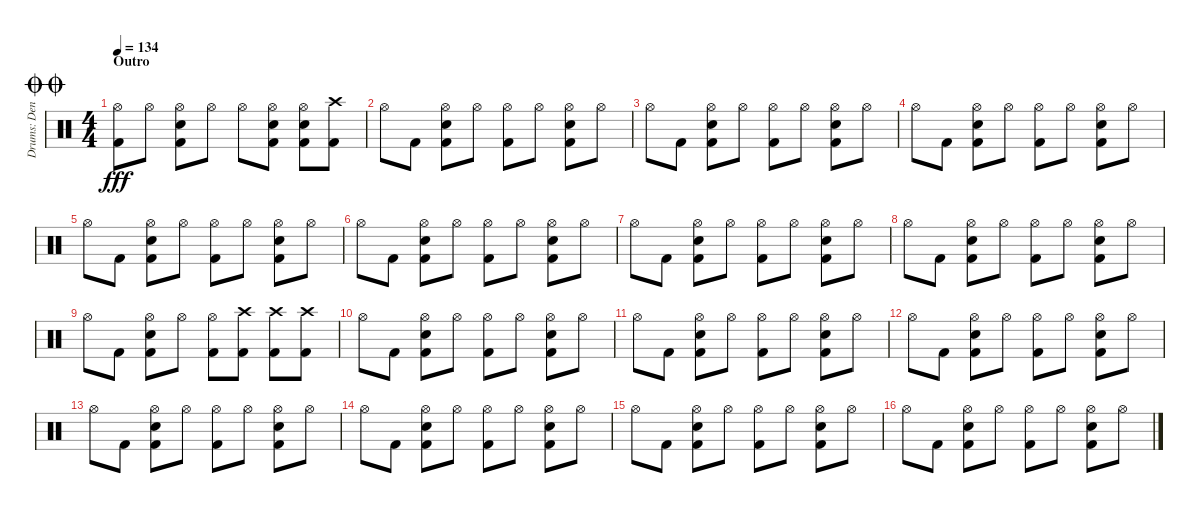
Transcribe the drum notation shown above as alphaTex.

\track ("Drums: Denny" "Drums: Den") {instrument percussion}
\staff {score}
\articulation defaults
\ts (4 4)
\section ("" "Outro")
\jump doublecoda
\tempo 134
\clef neutral
\ks c
("Hi-Hat (open)" "Kick (hit) 2").8{dy fff} "Hi-Hat (open)".8 ("Hi-Hat (open)" "Snare (hit) 2" "Kick (hit) 2").8 "Hi-Hat (open)".8 "Hi-Hat (open)".8 ("Hi-Hat (open)" "Snare (hit) 2" "Kick (hit) 2").8 ("Hi-Hat (open)" "Snare (hit) 2" "Kick (hit) 2").8 ("Crash high (hit)" "Kick (hit) 2").8 |
"Hi-Hat (open)".8 "Kick (hit) 2".8 ("Hi-Hat (open)" "Snare (hit) 2" "Kick (hit) 2").8 "Hi-Hat (open)".8 ("Hi-Hat (open)" "Kick (hit) 2").8 "Hi-Hat (open)".8 ("Hi-Hat (open)" "Snare (hit) 2" "Kick (hit) 2").8 "Hi-Hat (open)".8 |
"Hi-Hat (open)".8 "Kick (hit) 2".8 ("Hi-Hat (open)" "Snare (hit) 2" "Kick (hit) 2").8 "Hi-Hat (open)".8 ("Hi-Hat (open)" "Kick (hit) 2").8 "Hi-Hat (open)".8 ("Hi-Hat (open)" "Snare (hit) 2" "Kick (hit) 2").8 "Hi-Hat (open)".8 |
"Hi-Hat (open)".8 "Kick (hit) 2".8 ("Hi-Hat (open)" "Snare (hit) 2" "Kick (hit) 2").8 "Hi-Hat (open)".8 ("Hi-Hat (open)" "Kick (hit) 2").8 "Hi-Hat (open)".8 ("Hi-Hat (open)" "Snare (hit) 2" "Kick (hit) 2").8 "Hi-Hat (open)".8 |
"Hi-Hat (open)".8 "Kick (hit) 2".8 ("Hi-Hat (open)" "Snare (hit) 2" "Kick (hit) 2").8 "Hi-Hat (open)".8 ("Hi-Hat (open)" "Kick (hit) 2").8 "Hi-Hat (open)".8 ("Hi-Hat (open)" "Snare (hit) 2" "Kick (hit) 2").8 "Hi-Hat (open)".8 |
"Hi-Hat (open)".8 "Kick (hit) 2".8 ("Hi-Hat (open)" "Snare (hit) 2" "Kick (hit) 2").8 "Hi-Hat (open)".8 ("Hi-Hat (open)" "Kick (hit) 2").8 "Hi-Hat (open)".8 ("Hi-Hat (open)" "Snare (hit) 2" "Kick (hit) 2").8 "Hi-Hat (open)".8 |
"Hi-Hat (open)".8 "Kick (hit) 2".8 ("Hi-Hat (open)" "Snare (hit) 2" "Kick (hit) 2").8 "Hi-Hat (open)".8 ("Hi-Hat (open)" "Kick (hit) 2").8 "Hi-Hat (open)".8 ("Hi-Hat (open)" "Snare (hit) 2" "Kick (hit) 2").8 "Hi-Hat (open)".8 |
"Hi-Hat (open)".8 "Kick (hit) 2".8 ("Hi-Hat (open)" "Snare (hit) 2" "Kick (hit) 2").8 "Hi-Hat (open)".8 ("Hi-Hat (open)" "Kick (hit) 2").8 "Hi-Hat (open)".8 ("Hi-Hat (open)" "Snare (hit) 2" "Kick (hit) 2").8 "Hi-Hat (open)".8 |
"Hi-Hat (open)".8 "Kick (hit) 2".8 ("Hi-Hat (open)" "Snare (hit) 2" "Kick (hit) 2").8 "Hi-Hat (open)".8 ("Hi-Hat (open)" "Kick (hit) 2").8 ("Crash high (hit)" "Kick (hit) 2").8 ("Crash high (hit)" "Kick (hit) 2").8 ("Crash high (hit)" "Kick (hit) 2").8 |
"Hi-Hat (open)".8 "Kick (hit) 2".8 ("Hi-Hat (open)" "Snare (hit) 2" "Kick (hit) 2").8 "Hi-Hat (open)".8 ("Hi-Hat (open)" "Kick (hit) 2").8 "Hi-Hat (open)".8 ("Hi-Hat (open)" "Snare (hit) 2" "Kick (hit) 2").8 "Hi-Hat (open)".8 |
"Hi-Hat (open)".8 "Kick (hit) 2".8 ("Hi-Hat (open)" "Snare (hit) 2" "Kick (hit) 2").8 "Hi-Hat (open)".8 ("Hi-Hat (open)" "Kick (hit) 2").8 "Hi-Hat (open)".8 ("Hi-Hat (open)" "Snare (hit) 2" "Kick (hit) 2").8 "Hi-Hat (open)".8 |
"Hi-Hat (open)".8 "Kick (hit) 2".8 ("Hi-Hat (open)" "Snare (hit) 2" "Kick (hit) 2").8 "Hi-Hat (open)".8 ("Hi-Hat (open)" "Kick (hit) 2").8 "Hi-Hat (open)".8 ("Hi-Hat (open)" "Snare (hit) 2" "Kick (hit) 2").8 "Hi-Hat (open)".8 |
"Hi-Hat (open)".8 "Kick (hit) 2".8 ("Hi-Hat (open)" "Snare (hit) 2" "Kick (hit) 2").8 "Hi-Hat (open)".8 ("Hi-Hat (open)" "Kick (hit) 2").8 "Hi-Hat (open)".8 ("Hi-Hat (open)" "Snare (hit) 2" "Kick (hit) 2").8 "Hi-Hat (open)".8 |
"Hi-Hat (open)".8 "Kick (hit) 2".8 ("Hi-Hat (open)" "Snare (hit) 2" "Kick (hit) 2").8 "Hi-Hat (open)".8 ("Hi-Hat (open)" "Kick (hit) 2").8 "Hi-Hat (open)".8 ("Hi-Hat (open)" "Snare (hit) 2" "Kick (hit) 2").8 "Hi-Hat (open)".8 |
"Hi-Hat (open)".8 "Kick (hit) 2".8 ("Hi-Hat (open)" "Snare (hit) 2" "Kick (hit) 2").8 "Hi-Hat (open)".8 ("Hi-Hat (open)" "Kick (hit) 2").8 "Hi-Hat (open)".8 ("Hi-Hat (open)" "Snare (hit) 2" "Kick (hit) 2").8 "Hi-Hat (open)".8 |
"Hi-Hat (open)".8 "Kick (hit) 2".8 ("Hi-Hat (open)" "Snare (hit) 2" "Kick (hit) 2").8 "Hi-Hat (open)".8 ("Hi-Hat (open)" "Kick (hit) 2").8 "Hi-Hat (open)".8 ("Hi-Hat (open)" "Snare (hit) 2" "Kick (hit) 2").8 "Hi-Hat (open)".8
